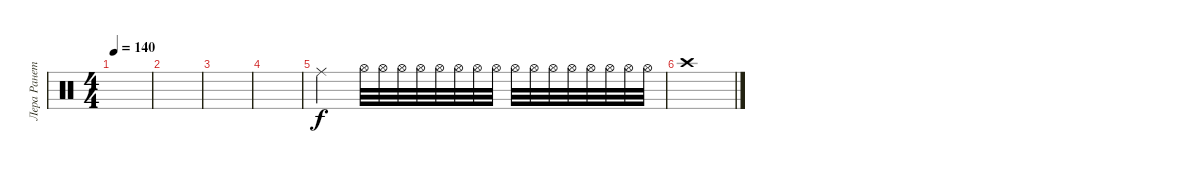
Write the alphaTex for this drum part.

\track ("Лера Ранетка" "Лера Ранет") {instrument percussion}
\staff {score}
\articulation defaults
\ts (4 4)
\tempo 140
\clef neutral
\ks c
|
|
|
|
"Ride (middle)".2 "Hi-Hat (open)".32 "Hi-Hat (open)".32 "Hi-Hat (open)".32 "Hi-Hat (open)".32 "Hi-Hat (open)".32 "Hi-Hat (open)".32 "Hi-Hat (open)".32 "Hi-Hat (open)".32 "Hi-Hat (open)".32 "Hi-Hat (open)".32 "Hi-Hat (open)".32 "Hi-Hat (open)".32 "Hi-Hat (open)".32 "Hi-Hat (open)".32 "Hi-Hat (open)".32 "Hi-Hat (open)".32 |
"Crash high (hit)".1
